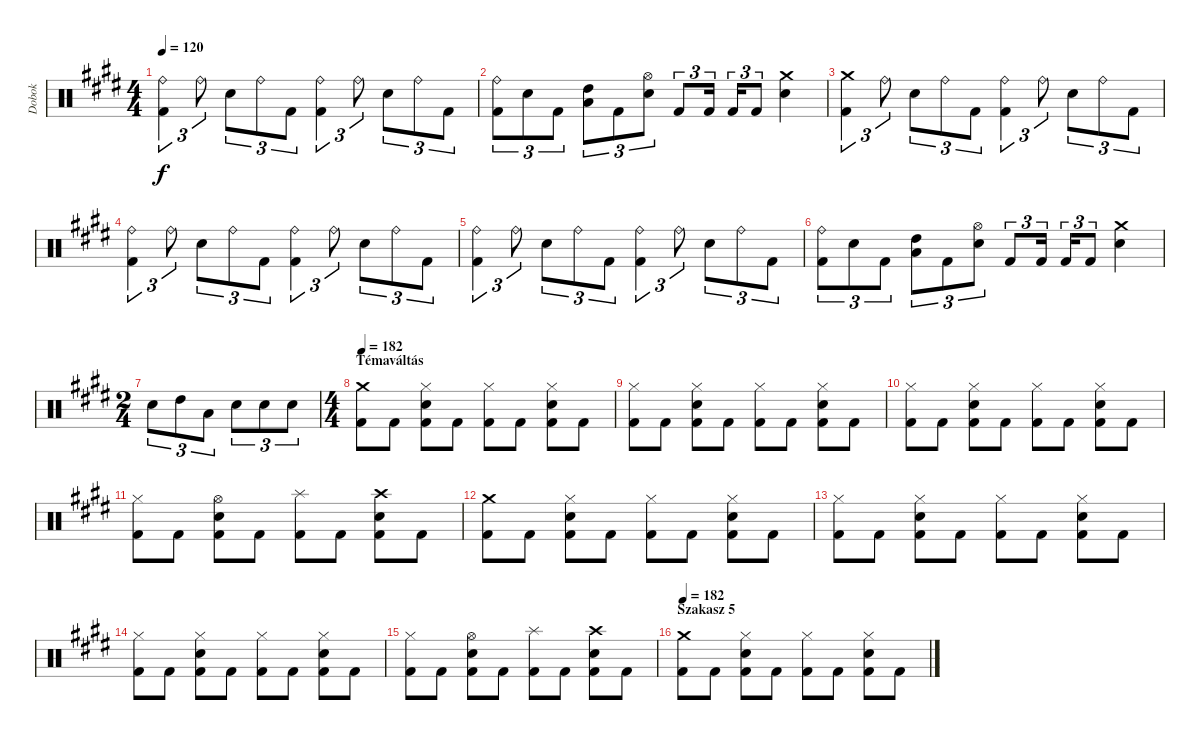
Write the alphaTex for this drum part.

\track ("Dobok" "Dobok") {instrument percussion}
\staff {score}
\articulation defaults
\ts (4 4)
\tempo 120
\clef neutral
\ks c#minor
("Ride (bell)" "Kick (hit) 2").4{tu (3 2) dy f} "Ride (bell)".8{tu (3 2)} "Snare (hit) 2".8{tu (3 2)} "Ride (bell)".8{tu (3 2)} "Kick (hit) 2".8{tu (3 2)} ("Ride (bell)" "Kick (hit) 2").4{tu (3 2)} "Ride (bell)".8{tu (3 2)} "Snare (hit) 2".8{tu (3 2)} "Ride (bell)".8{tu (3 2)} "Kick (hit) 2".8{tu (3 2)} |
("Ride (bell)" "Kick (hit) 2").8{tu (3 2)} "Snare (hit) 2".8{tu (3 2)} "Kick (hit) 2".8{tu (3 2)} ("High Tom (hit)" "Low Tom (hit)").8{tu (3 2)} "Kick (hit) 2".8{tu (3 2)} ("Hi-Hat (open)" "Snare (hit) 2").8{tu (3 2)} "Kick (hit) 2".8{tu (3 2)} "Kick (hit) 2".16{tu (3 2)} "Kick (hit) 2".16{tu (3 2)} "Kick (hit) 2".8{tu (3 2)} ("Crash medium (hit)" "Snare (hit) 2").4 |
("Crash medium (hit)" "Kick (hit) 2").4{tu (3 2)} "Ride (bell)".8{tu (3 2)} "Snare (hit) 2".8{tu (3 2)} "Ride (bell)".8{tu (3 2)} "Kick (hit) 2".8{tu (3 2)} ("Ride (bell)" "Kick (hit) 2").4{tu (3 2)} "Ride (bell)".8{tu (3 2)} "Snare (hit) 2".8{tu (3 2)} "Ride (bell)".8{tu (3 2)} "Kick (hit) 2".8{tu (3 2)} |
("Ride (bell)" "Kick (hit) 2").4{tu (3 2)} "Ride (bell)".8{tu (3 2)} "Snare (hit) 2".8{tu (3 2)} "Ride (bell)".8{tu (3 2)} "Kick (hit) 2".8{tu (3 2)} ("Ride (bell)" "Kick (hit) 2").4{tu (3 2)} "Ride (bell)".8{tu (3 2)} "Snare (hit) 2".8{tu (3 2)} "Ride (bell)".8{tu (3 2)} "Kick (hit) 2".8{tu (3 2)} |
("Ride (bell)" "Kick (hit) 2").4{tu (3 2)} "Ride (bell)".8{tu (3 2)} "Snare (hit) 2".8{tu (3 2)} "Ride (bell)".8{tu (3 2)} "Kick (hit) 2".8{tu (3 2)} ("Ride (bell)" "Kick (hit) 2").4{tu (3 2)} "Ride (bell)".8{tu (3 2)} "Snare (hit) 2".8{tu (3 2)} "Ride (bell)".8{tu (3 2)} "Kick (hit) 2".8{tu (3 2)} |
("Ride (bell)" "Kick (hit) 2").8{tu (3 2)} "Snare (hit) 2".8{tu (3 2)} "Kick (hit) 2".8{tu (3 2)} ("High Tom (hit)" "Low Tom (hit)").8{tu (3 2)} "Kick (hit) 2".8{tu (3 2)} ("Hi-Hat (open)" "Snare (hit) 2").8{tu (3 2)} "Kick (hit) 2".8{tu (3 2)} "Kick (hit) 2".16{tu (3 2)} "Kick (hit) 2".16{tu (3 2)} "Kick (hit) 2".8{tu (3 2)} ("Crash medium (hit)" "Snare (hit) 2").4 |
\ts (2 4)
"Snare (hit) 2".8{tu (3 2)} "High Tom (hit)".8{tu (3 2)} "Low Tom (hit)".8{tu (3 2)} "Snare (hit) 2".8{tu (3 2)} "Snare (hit) 2".8{tu (3 2)} "Snare (hit) 2".8{tu (3 2)} |
\ts (4 4)
\section ("" "Témaváltás")
\tempo 182
("Crash medium (hit)" "Kick (hit) 2").8 "Kick (hit) 2".8 ("Hi-Hat (closed)" "Snare (hit) 2" "Kick (hit) 2").8 "Kick (hit) 2".8 ("Hi-Hat (closed)" "Kick (hit) 2").8 "Kick (hit) 2".8 ("Hi-Hat (closed)" "Snare (hit) 2" "Kick (hit) 2").8 "Kick (hit) 2".8 |
("Hi-Hat (closed)" "Kick (hit) 2").8 "Kick (hit) 2".8 ("Hi-Hat (closed)" "Snare (hit) 2" "Kick (hit) 2").8 "Kick (hit) 2".8 ("Hi-Hat (closed)" "Kick (hit) 2").8 "Kick (hit) 2".8 ("Hi-Hat (closed)" "Snare (hit) 2" "Kick (hit) 2").8 "Kick (hit) 2".8 |
("Hi-Hat (closed)" "Kick (hit) 2").8 "Kick (hit) 2".8 ("Hi-Hat (closed)" "Snare (hit) 2" "Kick (hit) 2").8 "Kick (hit) 2".8 ("Hi-Hat (closed)" "Kick (hit) 2").8 "Kick (hit) 2".8 ("Hi-Hat (closed)" "Snare (hit) 2" "Kick (hit) 2").8 "Kick (hit) 2".8 |
("Hi-Hat (closed)" "Kick (hit) 2").8 "Kick (hit) 2".8 ("Hi-Hat (open)" "Snare (hit) 2" "Kick (hit) 2").8 "Kick (hit) 2".8 ("Splash (hit)" "Kick (hit) 2").8 "Kick (hit) 2".8 ("Crash high (hit)" "Snare (hit) 2" "Kick (hit) 2").8 "Kick (hit) 2".8 |
("Crash medium (hit)" "Kick (hit) 2").8 "Kick (hit) 2".8 ("Hi-Hat (closed)" "Snare (hit) 2" "Kick (hit) 2").8 "Kick (hit) 2".8 ("Hi-Hat (closed)" "Kick (hit) 2").8 "Kick (hit) 2".8 ("Hi-Hat (closed)" "Snare (hit) 2" "Kick (hit) 2").8 "Kick (hit) 2".8 |
("Hi-Hat (closed)" "Kick (hit) 2").8 "Kick (hit) 2".8 ("Hi-Hat (closed)" "Snare (hit) 2" "Kick (hit) 2").8 "Kick (hit) 2".8 ("Hi-Hat (closed)" "Kick (hit) 2").8 "Kick (hit) 2".8 ("Hi-Hat (closed)" "Snare (hit) 2" "Kick (hit) 2").8 "Kick (hit) 2".8 |
("Hi-Hat (closed)" "Kick (hit) 2").8 "Kick (hit) 2".8 ("Hi-Hat (closed)" "Snare (hit) 2" "Kick (hit) 2").8 "Kick (hit) 2".8 ("Hi-Hat (closed)" "Kick (hit) 2").8 "Kick (hit) 2".8 ("Hi-Hat (closed)" "Snare (hit) 2" "Kick (hit) 2").8 "Kick (hit) 2".8 |
("Hi-Hat (closed)" "Kick (hit) 2").8 "Kick (hit) 2".8 ("Hi-Hat (open)" "Snare (hit) 2" "Kick (hit) 2").8 "Kick (hit) 2".8 ("Splash (hit)" "Kick (hit) 2").8 "Kick (hit) 2".8 ("Crash high (hit)" "Snare (hit) 2" "Kick (hit) 2").8 "Kick (hit) 2".8 |
\section ("" "Szakasz 5")
\tempo 182
("Crash medium (hit)" "Kick (hit) 2").8 "Kick (hit) 2".8 ("Hi-Hat (closed)" "Snare (hit) 2" "Kick (hit) 2").8 "Kick (hit) 2".8 ("Hi-Hat (closed)" "Kick (hit) 2").8 "Kick (hit) 2".8 ("Hi-Hat (closed)" "Snare (hit) 2" "Kick (hit) 2").8 "Kick (hit) 2".8
